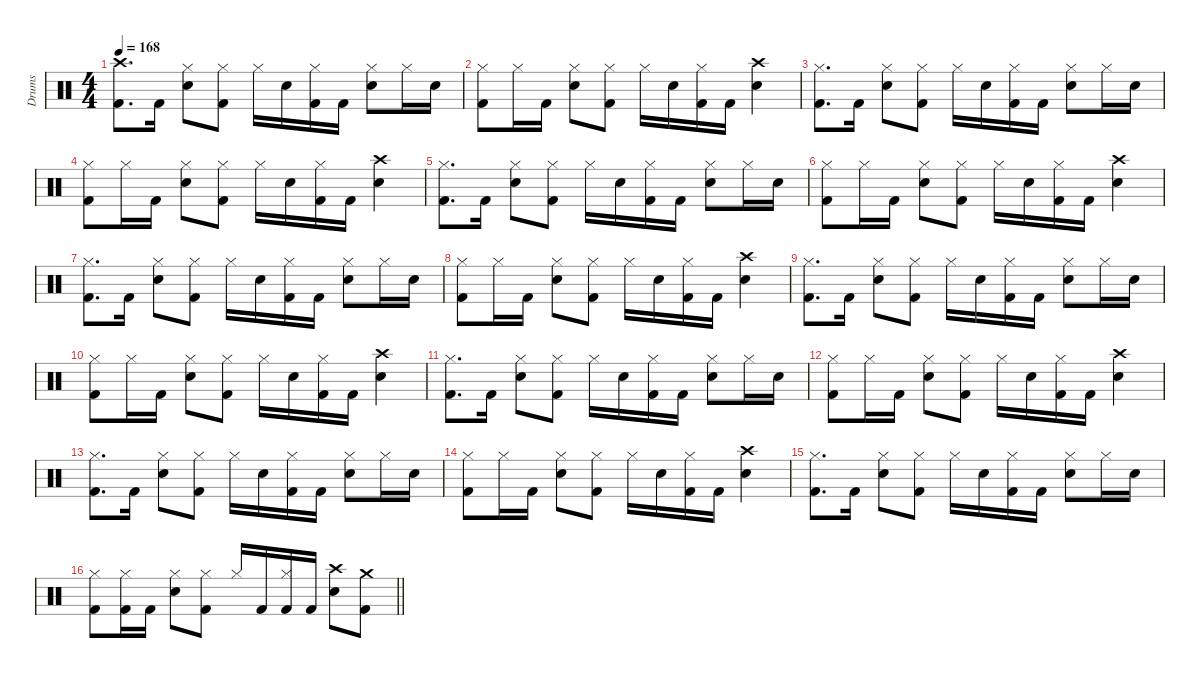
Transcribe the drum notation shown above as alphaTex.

\defaultSystemsLayout 4
\hideDynamics
\bracketExtendMode nobrackets
\firstSystemTrackNameMode fullname
\otherSystemsTrackNameOrientation horizontal
\track ("Drums" "drm.") {instrument percussion}
\staff {score}
\articulation defaults
\ts (4 4)
\tempo 168
\clef neutral
\ks c
("Crash high (hit)" "Kick (hit) 2").8{d dy f beam Down} "Kick (hit) 2".16{beam Down} ("Hi-Hat (closed)" "Snare (hit) 2").8{beam Down} ("Hi-Hat (closed)" "Kick (hit) 2").8{beam Down} "Hi-Hat (closed)".16{beam Down} "Snare (hit) 2".16{dy p beam Down} ("Hi-Hat (closed)" "Kick (hit) 2").16{dy f beam Down} "Kick (hit) 2".16{beam Down} ("Hi-Hat (closed)" "Snare (hit) 2").8{beam Down} "Hi-Hat (closed)".16{beam Down} "Snare (hit) 2".16{beam Down} |
("Hi-Hat (closed)" "Kick (hit) 2").8{dy ff beam Down} "Hi-Hat (closed)".16{beam Down} "Kick (hit) 2".16{dy f beam Down} ("Hi-Hat (closed)" "Snare (hit) 2").8{beam Down} ("Hi-Hat (closed)" "Kick (hit) 2").8{beam Down} "Hi-Hat (closed)".16{beam Down} "Snare (hit) 2".16{dy p beam Down} ("Hi-Hat (closed)" "Kick (hit) 2").16{dy f beam Down} "Kick (hit) 2".16{beam Down} ("Crash high (hit)" "Snare (hit) 2").4{beam Down} |
("Hi-Hat (closed)" "Kick (hit) 2").8{d beam Down} "Kick (hit) 2".16{beam Down} ("Hi-Hat (closed)" "Snare (hit) 2").8{beam Down} ("Hi-Hat (closed)" "Kick (hit) 2").8{beam Down} "Hi-Hat (closed)".16{beam Down} "Snare (hit) 2".16{dy p beam Down} ("Hi-Hat (closed)" "Kick (hit) 2").16{dy f beam Down} "Kick (hit) 2".16{beam Down} ("Hi-Hat (closed)" "Snare (hit) 2").8{beam Down} "Hi-Hat (closed)".16{beam Down} "Snare (hit) 2".16{beam Down} |
("Hi-Hat (closed)" "Kick (hit) 2").8{dy ff beam Down} "Hi-Hat (closed)".16{beam Down} "Kick (hit) 2".16{dy f beam Down} ("Hi-Hat (closed)" "Snare (hit) 2").8{beam Down} ("Hi-Hat (closed)" "Kick (hit) 2").8{beam Down} "Hi-Hat (closed)".16{beam Down} "Snare (hit) 2".16{dy p beam Down} ("Hi-Hat (closed)" "Kick (hit) 2").16{dy f beam Down} "Kick (hit) 2".16{beam Down} ("Crash high (hit)" "Snare (hit) 2").4{beam Down} |
("Hi-Hat (closed)" "Kick (hit) 2").8{d beam Down} "Kick (hit) 2".16{beam Down} ("Hi-Hat (closed)" "Snare (hit) 2").8{beam Down} ("Hi-Hat (closed)" "Kick (hit) 2").8{beam Down} "Hi-Hat (closed)".16{beam Down} "Snare (hit) 2".16{dy p beam Down} ("Hi-Hat (closed)" "Kick (hit) 2").16{dy f beam Down} "Kick (hit) 2".16{beam Down} ("Hi-Hat (closed)" "Snare (hit) 2").8{beam Down} "Hi-Hat (closed)".16{beam Down} "Snare (hit) 2".16{beam Down} |
("Hi-Hat (closed)" "Kick (hit) 2").8{dy ff beam Down} "Hi-Hat (closed)".16{beam Down} "Kick (hit) 2".16{dy f beam Down} ("Hi-Hat (closed)" "Snare (hit) 2").8{beam Down} ("Hi-Hat (closed)" "Kick (hit) 2").8{beam Down} "Hi-Hat (closed)".16{beam Down} "Snare (hit) 2".16{dy p beam Down} ("Hi-Hat (closed)" "Kick (hit) 2").16{dy f beam Down} "Kick (hit) 2".16{beam Down} ("Crash high (hit)" "Snare (hit) 2").4{beam Down} |
("Hi-Hat (closed)" "Kick (hit) 2").8{d beam Down} "Kick (hit) 2".16{beam Down} ("Hi-Hat (closed)" "Snare (hit) 2").8{beam Down} ("Hi-Hat (closed)" "Kick (hit) 2").8{beam Down} "Hi-Hat (closed)".16{beam Down} "Snare (hit) 2".16{dy p beam Down} ("Hi-Hat (closed)" "Kick (hit) 2").16{dy f beam Down} "Kick (hit) 2".16{beam Down} ("Hi-Hat (closed)" "Snare (hit) 2").8{beam Down} "Hi-Hat (closed)".16{beam Down} "Snare (hit) 2".16{beam Down} |
("Hi-Hat (closed)" "Kick (hit) 2").8{dy ff beam Down} "Hi-Hat (closed)".16{beam Down} "Kick (hit) 2".16{dy f beam Down} ("Hi-Hat (closed)" "Snare (hit) 2").8{beam Down} ("Hi-Hat (closed)" "Kick (hit) 2").8{beam Down} "Hi-Hat (closed)".16{beam Down} "Snare (hit) 2".16{dy p beam Down} ("Hi-Hat (closed)" "Kick (hit) 2").16{dy f beam Down} "Kick (hit) 2".16{beam Down} ("Crash high (hit)" "Snare (hit) 2").4{beam Down} |
("Hi-Hat (closed)" "Kick (hit) 2").8{d beam Down} "Kick (hit) 2".16{beam Down} ("Hi-Hat (closed)" "Snare (hit) 2").8{beam Down} ("Hi-Hat (closed)" "Kick (hit) 2").8{beam Down} "Hi-Hat (closed)".16{beam Down} "Snare (hit) 2".16{dy p beam Down} ("Hi-Hat (closed)" "Kick (hit) 2").16{dy f beam Down} "Kick (hit) 2".16{beam Down} ("Hi-Hat (closed)" "Snare (hit) 2").8{beam Down} "Hi-Hat (closed)".16{beam Down} "Snare (hit) 2".16{beam Down} |
("Hi-Hat (closed)" "Kick (hit) 2").8{dy ff beam Down} "Hi-Hat (closed)".16{beam Down} "Kick (hit) 2".16{dy f beam Down} ("Hi-Hat (closed)" "Snare (hit) 2").8{beam Down} ("Hi-Hat (closed)" "Kick (hit) 2").8{beam Down} "Hi-Hat (closed)".16{beam Down} "Snare (hit) 2".16{dy p beam Down} ("Hi-Hat (closed)" "Kick (hit) 2").16{dy f beam Down} "Kick (hit) 2".16{beam Down} ("Crash high (hit)" "Snare (hit) 2").4{beam Down} |
("Hi-Hat (closed)" "Kick (hit) 2").8{d beam Down} "Kick (hit) 2".16{beam Down} ("Hi-Hat (closed)" "Snare (hit) 2").8{beam Down} ("Hi-Hat (closed)" "Kick (hit) 2").8{beam Down} "Hi-Hat (closed)".16{beam Down} "Snare (hit) 2".16{dy p beam Down} ("Hi-Hat (closed)" "Kick (hit) 2").16{dy f beam Down} "Kick (hit) 2".16{beam Down} ("Hi-Hat (closed)" "Snare (hit) 2").8{beam Down} "Hi-Hat (closed)".16{beam Down} "Snare (hit) 2".16{beam Down} |
("Hi-Hat (closed)" "Kick (hit) 2").8{dy ff beam Down} "Hi-Hat (closed)".16{beam Down} "Kick (hit) 2".16{dy f beam Down} ("Hi-Hat (closed)" "Snare (hit) 2").8{beam Down} ("Hi-Hat (closed)" "Kick (hit) 2").8{beam Down} "Hi-Hat (closed)".16{beam Down} "Snare (hit) 2".16{dy p beam Down} ("Hi-Hat (closed)" "Kick (hit) 2").16{dy f beam Down} "Kick (hit) 2".16{beam Down} ("Crash high (hit)" "Snare (hit) 2").4{beam Down} |
("Hi-Hat (closed)" "Kick (hit) 2").8{d beam Down} "Kick (hit) 2".16{beam Down} ("Hi-Hat (closed)" "Snare (hit) 2").8{beam Down} ("Hi-Hat (closed)" "Kick (hit) 2").8{beam Down} "Hi-Hat (closed)".16{beam Down} "Snare (hit) 2".16{dy p beam Down} ("Hi-Hat (closed)" "Kick (hit) 2").16{dy f beam Down} "Kick (hit) 2".16{beam Down} ("Hi-Hat (closed)" "Snare (hit) 2").8{beam Down} "Hi-Hat (closed)".16{beam Down} "Snare (hit) 2".16{beam Down} |
("Hi-Hat (closed)" "Kick (hit) 2").8{dy ff beam Down} "Hi-Hat (closed)".16{beam Down} "Kick (hit) 2".16{dy f beam Down} ("Hi-Hat (closed)" "Snare (hit) 2").8{beam Down} ("Hi-Hat (closed)" "Kick (hit) 2").8{beam Down} "Hi-Hat (closed)".16{beam Down} "Snare (hit) 2".16{dy p beam Down} ("Hi-Hat (closed)" "Kick (hit) 2").16{dy f beam Down} "Kick (hit) 2".16{beam Down} ("Crash high (hit)" "Snare (hit) 2").4{beam Down} |
("Hi-Hat (closed)" "Kick (hit) 2").8{d beam Down} "Kick (hit) 2".16{beam Down} ("Hi-Hat (closed)" "Snare (hit) 2").8{beam Down} ("Hi-Hat (closed)" "Kick (hit) 2").8{beam Down} "Hi-Hat (closed)".16{beam Down} "Snare (hit) 2".16{dy p beam Down} ("Hi-Hat (closed)" "Kick (hit) 2").16{dy f beam Down} "Kick (hit) 2".16{beam Down} ("Hi-Hat (closed)" "Snare (hit) 2").8{beam Down} "Hi-Hat (closed)".16{beam Down} "Snare (hit) 2".16{beam Down} |
\barLineRight lightlight
("Hi-Hat (closed)" "Kick (hit) 2").8{dy ff beam Down} ("Hi-Hat (closed)" "Kick (hit) 2").16{beam Down} "Kick (hit) 2".16{dy f beam Down} ("Hi-Hat (closed)" "Snare (hit) 2").8{beam Down} ("Hi-Hat (closed)" "Kick (hit) 2").8{beam Down} "Hi-Hat (closed)".16{beam Up} "Kick (hit) 2".16{beam Up} ("Hi-Hat (closed)" "Kick (hit) 2").16{beam Up} "Kick (hit) 2".16{beam Up} ("Crash high (hit)" "Snare (hit) 2").8{beam Down} ("Crash medium (hit)" "Kick (hit) 2").8{beam Down}
